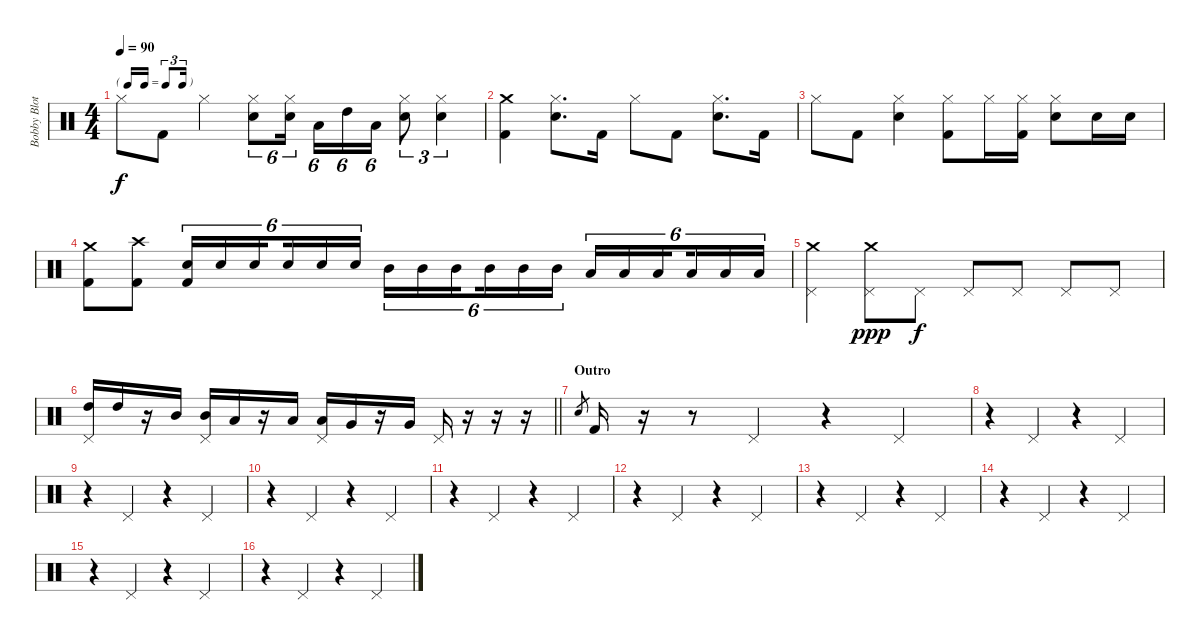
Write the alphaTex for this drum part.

\track ("Bobby Blotzer - Drums" "Bobby Blot") {instrument percussion}
\staff {score}
\articulation defaults
\ts (4 4)
\tf triplet16th
\tempo 90
\clef neutral
\ks c "Hi-Hat (closed)".8{dy f} "Kick (hit) 2".8 "Hi-Hat (closed)".4
("Hi-Hat (closed)" "Snare (hit) 2").8{tu (6 4)} ("Hi-Hat (closed)" "Snare (hit) 2").16{tu (6 4) beam splitsecondary} "Low Tom (hit)".16{tu (6 4)} "High Tom (hit)".16{tu (6 4)} "Low Tom (hit)".16{tu (6 4)} ("Hi-Hat (closed)" "Snare (hit) 2").8{tu (3 2)} ("Hi-Hat (closed)" "Snare (hit) 2").4{tu (3 2)} |
("Crash medium (hit)" "Kick (hit) 2").4 ("Hi-Hat (closed)" "Snare (hit) 2").8{d} "Kick (hit) 2".16 "Hi-Hat (closed)".8 "Kick (hit) 2".8 ("Hi-Hat (closed)" "Snare (hit) 2").8{d} "Kick (hit) 2".16 |
"Hi-Hat (closed)".8 "Kick (hit) 2".8 ("Hi-Hat (closed)" "Snare (hit) 2").4 ("Hi-Hat (closed)" "Kick (hit) 2").8 "Hi-Hat (closed)".16 ("Hi-Hat (closed)" "Kick (hit) 2").16 ("Hi-Hat (closed)" "Snare (hit) 2").8 "Snare (hit) 2".16 "Snare (hit) 2".16 |
("Crash medium (hit)" "Kick (hit) 2").8 ("Crash high (hit)" "Kick (hit) 2").8 ("Snare (hit) 2" "Kick (hit) 2").16{tu (6 4)} "Snare (hit) 2".16{tu (6 4)} "Snare (hit) 2".16{tu (6 4) beam splitsecondary} "Snare (hit) 2".16{tu (6 4)} "Snare (hit) 2".16{tu (6 4)} "Snare (hit) 2".16{tu (6 4)} "Mid Tom (hit)".16{tu (6 4)} "Mid Tom (hit)".16{tu (6 4)} "Mid Tom (hit)".16{tu (6 4) beam splitsecondary} "Mid Tom (hit)".16{tu (6 4)} "Mid Tom (hit)".16{tu (6 4)} "Mid Tom (hit)".16{tu (6 4)} "Low Tom (hit)".16{tu (6 4)} "Low Tom (hit)".16{tu (6 4)} "Low Tom (hit)".16{tu (6 4) beam splitsecondary} "Low Tom (hit)".16{tu (6 4)} "Low Tom (hit)".16{tu (6 4)} "Low Tom (hit)".16{tu (6 4)} |
("Crash medium (hit)" "Pedal Hi-Hat (hit)").4 ("Crash medium (hit)" "Pedal Hi-Hat (hit)").8{dy ppp} "Pedal Hi-Hat (hit)".8{dy f} "Pedal Hi-Hat (hit)".8 "Pedal Hi-Hat (hit)".8 "Pedal Hi-Hat (hit)".8 "Pedal Hi-Hat (hit)".8 |
\barLineRight lightlight
("Pedal Hi-Hat (hit)" "High Tom (hit)").16 "High Tom (hit)".16 r.16 "Mid Tom (hit)".16 ("Pedal Hi-Hat (hit)" "Mid Tom (hit)").16 "Low Tom (hit)".16 r.16 "Low Tom (hit)".16 ("Pedal Hi-Hat (hit)" "Low Tom (hit)").16 "Very Low Tom (hit)".16 r.16 "Very Low Tom (hit)".16 "Pedal Hi-Hat (hit)".16 r.16 r.16 r.16 |
\section ("" "Outro")
"Snare (hit) 2".8{gr} "Kick (hit) 2".16 r.16 r.8 "Pedal Hi-Hat (hit)".4 r.4 "Pedal Hi-Hat (hit)".4 |
r.4 "Pedal Hi-Hat (hit)".4 r.4 "Pedal Hi-Hat (hit)".4 |
r.4 "Pedal Hi-Hat (hit)".4 r.4 "Pedal Hi-Hat (hit)".4 |
r.4 "Pedal Hi-Hat (hit)".4 r.4 "Pedal Hi-Hat (hit)".4 |
r.4 "Pedal Hi-Hat (hit)".4 r.4 "Pedal Hi-Hat (hit)".4 |
r.4 "Pedal Hi-Hat (hit)".4 r.4 "Pedal Hi-Hat (hit)".4 |
r.4 "Pedal Hi-Hat (hit)".4 r.4 "Pedal Hi-Hat (hit)".4 |
r.4 "Pedal Hi-Hat (hit)".4 r.4 "Pedal Hi-Hat (hit)".4 |
r.4 "Pedal Hi-Hat (hit)".4 r.4 "Pedal Hi-Hat (hit)".4 |
r.4 "Pedal Hi-Hat (hit)".4 r.4 "Pedal Hi-Hat (hit)".4
